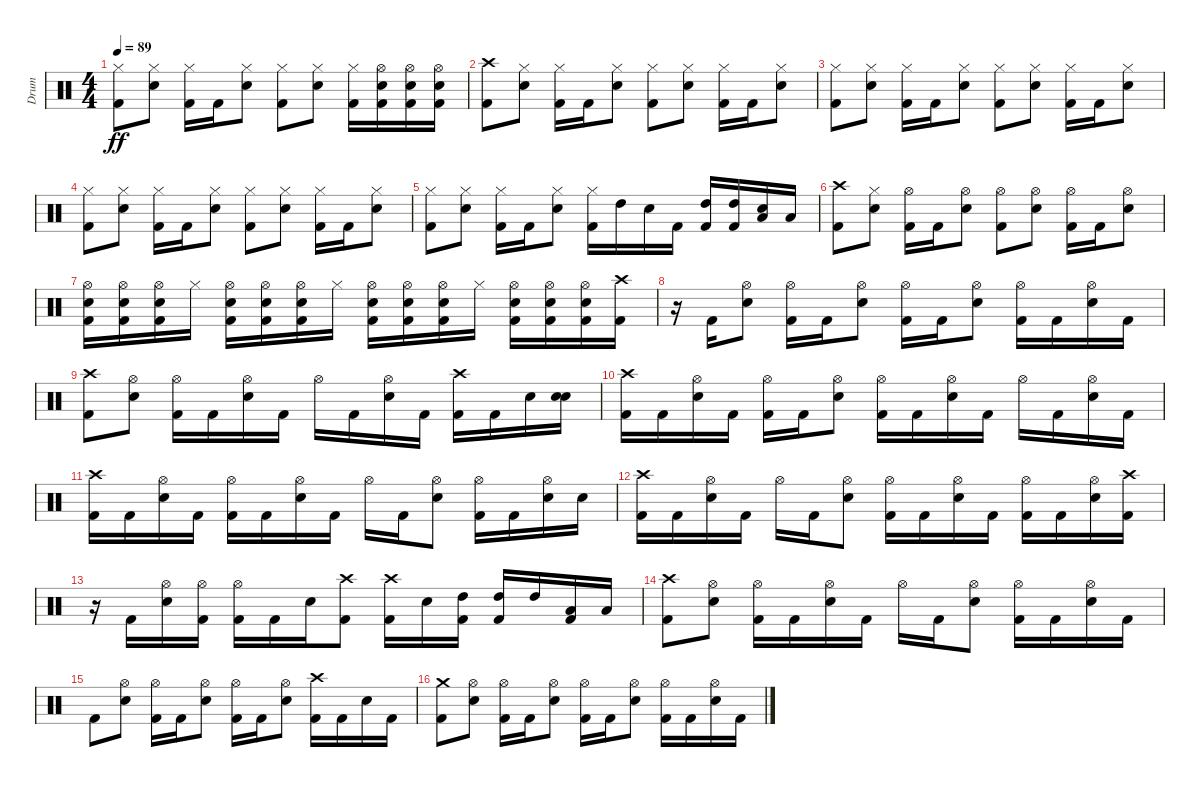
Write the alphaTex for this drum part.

\track ("Drum" "Drum") {instrument percussion}
\staff {score}
\articulation defaults
\ts (4 4)
\tempo 89
\clef neutral
\ks c
("Kick (hit) 2" "Hi-Hat (closed)").8{dy ff} ("Electric Snare (hit)" "Hi-Hat (closed)").8 ("Kick (hit) 2" "Hi-Hat (closed)").16 "Kick (hit) 2".16 ("Electric Snare (hit)" "Hi-Hat (closed)").8 ("Kick (hit) 2" "Hi-Hat (closed)").8 ("Electric Snare (hit)" "Hi-Hat (closed)").8 ("Kick (hit) 2" "Hi-Hat (closed)").16 ("Hi-Hat (open)" "Kick (hit) 2" "Electric Snare (hit)").16 ("Electric Snare (hit)" "Kick (hit) 2" "Hi-Hat (open)").16 ("Kick (hit) 2" "Electric Snare (hit)" "Hi-Hat (open)").16 |
("Crash high (hit)" "Kick (hit) 2").8 ("Electric Snare (hit)" "Hi-Hat (closed)").8 ("Kick (hit) 2" "Hi-Hat (closed)").16 "Kick (hit) 2".16 ("Electric Snare (hit)" "Hi-Hat (closed)").8 ("Kick (hit) 2" "Hi-Hat (closed)").8 ("Electric Snare (hit)" "Hi-Hat (closed)").8 ("Kick (hit) 2" "Hi-Hat (closed)").16 "Kick (hit) 2".16 ("Electric Snare (hit)" "Hi-Hat (closed)").8 |
("Kick (hit) 2" "Hi-Hat (closed)").8 ("Hi-Hat (closed)" "Electric Snare (hit)").8 ("Kick (hit) 2" "Hi-Hat (closed)").16 "Kick (hit) 2".16 ("Hi-Hat (closed)" "Electric Snare (hit)").8 ("Kick (hit) 2" "Hi-Hat (closed)").8 ("Electric Snare (hit)" "Hi-Hat (closed)").8 ("Kick (hit) 2" "Hi-Hat (closed)").16 "Kick (hit) 2".16 ("Hi-Hat (closed)" "Electric Snare (hit)").8 |
("Kick (hit) 2" "Hi-Hat (closed)").8 ("Electric Snare (hit)" "Hi-Hat (closed)").8 ("Kick (hit) 2" "Hi-Hat (closed)").16 "Kick (hit) 2".16 ("Hi-Hat (closed)" "Electric Snare (hit)").8 ("Kick (hit) 2" "Hi-Hat (closed)").8 ("Electric Snare (hit)" "Hi-Hat (closed)").8 ("Kick (hit) 2" "Hi-Hat (closed)").16 "Kick (hit) 2".16 ("Electric Snare (hit)" "Hi-Hat (closed)").8 |
("Kick (hit) 2" "Hi-Hat (closed)").8 ("Electric Snare (hit)" "Hi-Hat (closed)").8 ("Kick (hit) 2" "Hi-Hat (closed)").16 "Kick (hit) 2".16 ("Electric Snare (hit)" "Hi-Hat (closed)").8 ("Kick (hit) 2" "Hi-Hat (closed)").16 "High Tom (hit)".16 "Electric Snare (hit)".16 "Kick (hit) 2".16 ("High Tom (hit)" "Kick (hit) 2").16 ("High Tom (hit)" "Kick (hit) 2").16 ("Electric Snare (hit)" "Low Tom (hit)").16 "Low Floor Tom (hit)".16 |
("Crash high (hit)" "Kick (hit) 2").8 ("Electric Snare (hit)" "Hi-Hat (closed)").8 ("Kick (hit) 2" "Hi-Hat (open)").16 "Kick (hit) 2".16 ("Electric Snare (hit)" "Hi-Hat (open)").8 ("Kick (hit) 2" "Hi-Hat (open)").8 ("Electric Snare (hit)" "Hi-Hat (open)").8 ("Kick (hit) 2" "Hi-Hat (open)").16 "Kick (hit) 2".16 ("Electric Snare (hit)" "Hi-Hat (open)").8 |
("Kick (hit) 2" "Electric Snare (hit)" "Hi-Hat (open)").16 ("Electric Snare (hit)" "Kick (hit) 2" "Hi-Hat (open)").16 ("Electric Snare (hit)" "Kick (hit) 2" "Hi-Hat (open)").16 "Hi-Hat (closed)".16 ("Kick (hit) 2" "Electric Snare (hit)" "Hi-Hat (open)").16 ("Electric Snare (hit)" "Kick (hit) 2" "Hi-Hat (open)").16 ("Kick (hit) 2" "Electric Snare (hit)" "Hi-Hat (open)").16 "Hi-Hat (closed)".16 ("Kick (hit) 2" "Electric Snare (hit)" "Hi-Hat (open)").16 ("Electric Snare (hit)" "Kick (hit) 2" "Hi-Hat (open)").16 ("Electric Snare (hit)" "Kick (hit) 2" "Hi-Hat (open)").16 "Hi-Hat (closed)".16 ("Electric Snare (hit)" "Kick (hit) 2" "Hi-Hat (open)").16 ("Hi-Hat (open)" "Kick (hit) 2" "Electric Snare (hit)").16 ("Electric Snare (hit)" "Kick (hit) 2" "Hi-Hat (open)").16 ("Crash high (hit)" "Kick (hit) 2").16 |
r.16 "Kick (hit) 2".16 ("Electric Snare (hit)" "Hi-Hat (open)").8 ("Kick (hit) 2" "Hi-Hat (open)").16 "Kick (hit) 2".16 ("Electric Snare (hit)" "Hi-Hat (open)").8 ("Kick (hit) 2" "Hi-Hat (open)").16 "Kick (hit) 2".16 ("Electric Snare (hit)" "Hi-Hat (open)").8 ("Kick (hit) 2" "Hi-Hat (open)").16 "Kick (hit) 2".16 ("Electric Snare (hit)" "Hi-Hat (open)").16 "Kick (hit) 2".16 |
("Crash high (hit)" "Kick (hit) 2").8 ("Electric Snare (hit)" "Hi-Hat (open)").8 ("Kick (hit) 2" "Hi-Hat (open)").16 "Kick (hit) 2".16 ("Electric Snare (hit)" "Hi-Hat (open)").16 "Kick (hit) 2".16 "Hi-Hat (open)".16 "Kick (hit) 2".16 ("Electric Snare (hit)" "Hi-Hat (open)").16 "Kick (hit) 2".16 ("Crash high (hit)" "Kick (hit) 2").16 "Kick (hit) 2".16 "Electric Snare (hit)".16 ("Electric Snare (hit)" "Electric Snare (hit)").16 |
("Kick (hit) 2" "Crash high (hit)").16 "Kick (hit) 2".16 ("Electric Snare (hit)" "Hi-Hat (open)").16 "Kick (hit) 2".16 ("Kick (hit) 2" "Hi-Hat (open)").16 "Kick (hit) 2".16 ("Hi-Hat (open)" "Electric Snare (hit)").8 ("Kick (hit) 2" "Hi-Hat (open)").16 "Kick (hit) 2".16 ("Hi-Hat (open)" "Electric Snare (hit)").16 "Kick (hit) 2".16 "Hi-Hat (open)".16 "Kick (hit) 2".16 ("Hi-Hat (open)" "Electric Snare (hit)").16 "Kick (hit) 2".16 |
("Kick (hit) 2" "Crash high (hit)").16 "Kick (hit) 2".16 ("Electric Snare (hit)" "Hi-Hat (open)").16 "Kick (hit) 2".16 ("Kick (hit) 2" "Hi-Hat (open)").16 "Kick (hit) 2".16 ("Electric Snare (hit)" "Hi-Hat (open)").16 "Kick (hit) 2".16 "Hi-Hat (open)".16 "Kick (hit) 2".16 ("Electric Snare (hit)" "Hi-Hat (open)").8 ("Kick (hit) 2" "Hi-Hat (open)").16 "Kick (hit) 2".16 ("Electric Snare (hit)" "Hi-Hat (open)").16 "Electric Snare (hit)".16 |
("Kick (hit) 2" "Crash high (hit)").16 "Kick (hit) 2".16 ("Hi-Hat (open)" "Electric Snare (hit)").16 "Kick (hit) 2".16 "Hi-Hat (open)".16 "Kick (hit) 2".16 ("Electric Snare (hit)" "Hi-Hat (open)").8 ("Kick (hit) 2" "Hi-Hat (open)").16 "Kick (hit) 2".16 ("Electric Snare (hit)" "Hi-Hat (open)").16 "Kick (hit) 2".16 ("Kick (hit) 2" "Hi-Hat (open)").16 "Kick (hit) 2".16 ("Electric Snare (hit)" "Hi-Hat (open)").16 ("Kick (hit) 2" "Crash high (hit)").16 |
r.16 "Kick (hit) 2".16 ("Hi-Hat (open)" "Electric Snare (hit)").16 ("Kick (hit) 2" "Hi-Hat (open)").16 ("Kick (hit) 2" "Hi-Hat (open)").16 "Kick (hit) 2".16 "Electric Snare (hit)".16 ("Kick (hit) 2" "Crash high (hit)").8 ("Crash high (hit)" "Kick (hit) 2").16 "Electric Snare (hit)".16 ("High Tom (hit)" "Kick (hit) 2").16 ("Kick (hit) 2" "High Tom (hit)").16 "High Tom (hit)".16 ("Low Tom (hit)" "Kick (hit) 2").16 "Low Floor Tom (hit)".16 |
("Crash high (hit)" "Kick (hit) 2").8 ("Electric Snare (hit)" "Hi-Hat (open)").8 ("Kick (hit) 2" "Hi-Hat (open)").16 "Kick (hit) 2".16 ("Hi-Hat (open)" "Electric Snare (hit)").16 "Kick (hit) 2".16 "Hi-Hat (open)".16 "Kick (hit) 2".16 ("Electric Snare (hit)" "Hi-Hat (open)").8 ("Kick (hit) 2" "Hi-Hat (open)").16 "Kick (hit) 2".16 ("Electric Snare (hit)" "Hi-Hat (open)").16 "Kick (hit) 2".16 |
"Kick (hit) 2".8 ("Electric Snare (hit)" "Hi-Hat (open)").8 ("Kick (hit) 2" "Hi-Hat (open)").16 "Kick (hit) 2".16 ("Hi-Hat (open)" "Electric Snare (hit)").8 ("Kick (hit) 2" "Hi-Hat (open)").16 "Kick (hit) 2".16 ("Electric Snare (hit)" "Hi-Hat (open)").8 ("Crash high (hit)" "Kick (hit) 2").16 "Kick (hit) 2".16 "Electric Snare (hit)".16 "Kick (hit) 2".16 |
("Kick (hit) 2" "Crash medium (hit)").8 ("Electric Snare (hit)" "Hi-Hat (open)").8 ("Kick (hit) 2" "Hi-Hat (open)").16 "Kick (hit) 2".16 ("Hi-Hat (open)" "Electric Snare (hit)").8 ("Kick (hit) 2" "Hi-Hat (open)").16 "Kick (hit) 2".16 ("Electric Snare (hit)" "Hi-Hat (open)").8 ("Kick (hit) 2" "Hi-Hat (open)").16 "Kick (hit) 2".16 ("Electric Snare (hit)" "Hi-Hat (open)").16 "Kick (hit) 2".16
